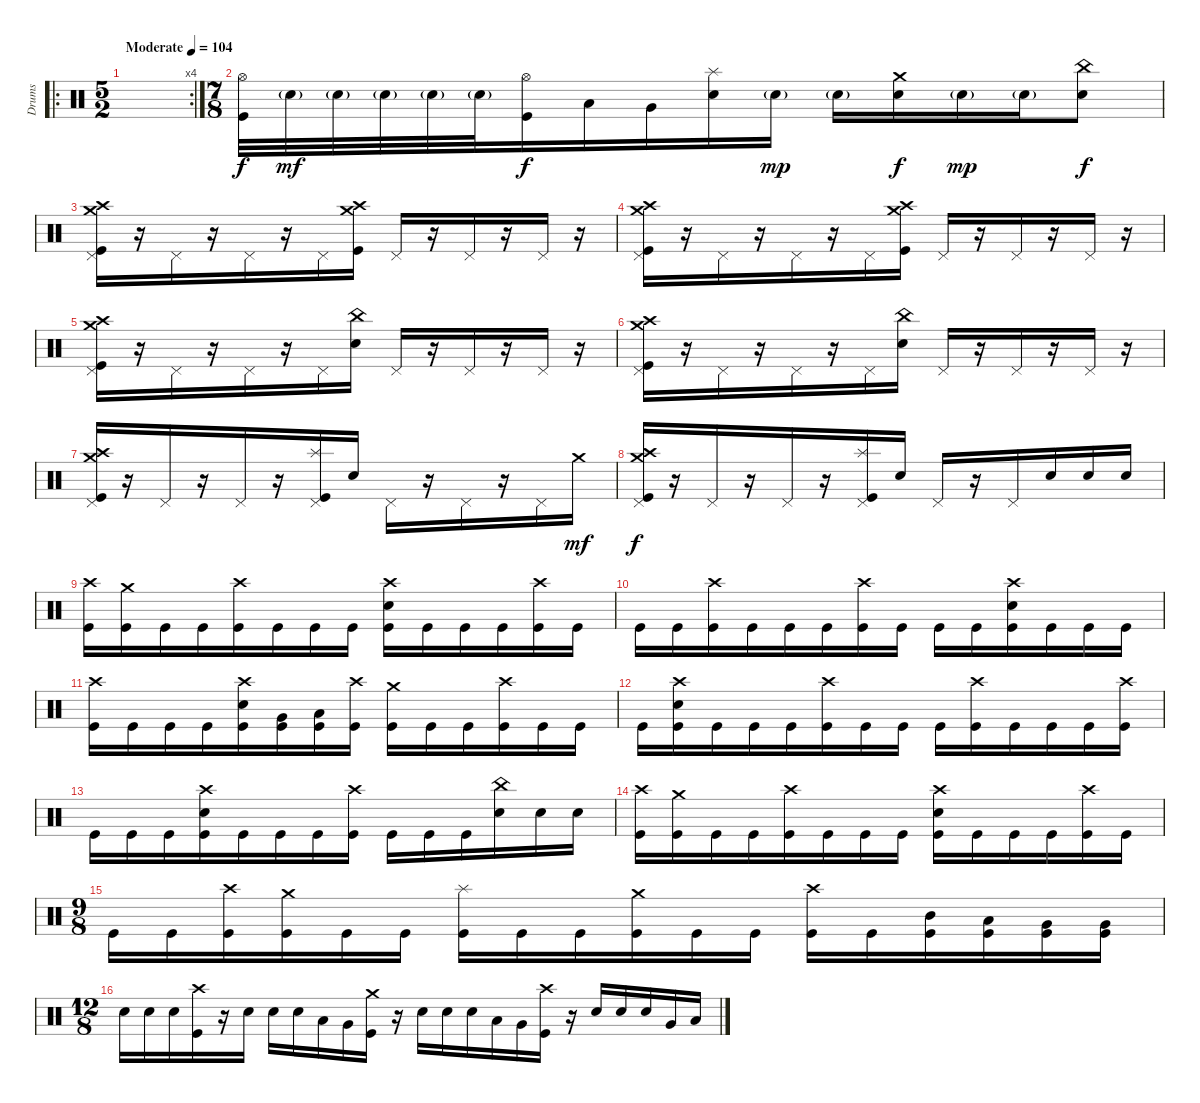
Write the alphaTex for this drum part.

\track ("Drums" "Drums") {instrument percussion}
\staff {score}
\articulation defaults
\ro
\rc 4
\ts (5 2)
\tempo (104 "Moderate")
\clef neutral
\ks c
|
\ts (7 8)
("Hi-Hat (open)" "Kick (hit)").32 "Electric Snare (hit)"{g}.32{dy mf} "Electric Snare (hit)"{g}.32 "Electric Snare (hit)"{g}.32 "Electric Snare (hit)"{g}.32 "Electric Snare (hit)"{g}.32 ("Hi-Hat (open)" "Kick (hit)").16{dy f} "Low Floor Tom (hit)".16 "Very Low Tom (hit)".16 ("Splash (hit)" "Electric Snare (hit)").16 "Electric Snare (hit)"{g}.16{dy mp} "Electric Snare (hit)"{g}.16 ("Crash medium (hit)" "Electric Snare (hit)").16{dy f} "Electric Snare (hit)"{g}.16{dy mp} "Electric Snare (hit)"{g}.16 ("China (hit)" "Electric Snare (hit)").8{dy f} |
("Crash high (hit)" "Crash medium (hit)" "Pedal Hi-Hat (hit)" "Kick (hit)").16 r.16 "Pedal Hi-Hat (hit)".16 r.16 "Pedal Hi-Hat (hit)".16 r.16 "Pedal Hi-Hat (hit)".16 ("Crash high (hit)" "Crash medium (hit)" "Kick (hit)").16 "Pedal Hi-Hat (hit)".16 r.16 "Pedal Hi-Hat (hit)".16 r.16 "Pedal Hi-Hat (hit)".16 r.16 |
("Crash high (hit)" "Crash medium (hit)" "Pedal Hi-Hat (hit)" "Kick (hit)").16 r.16 "Pedal Hi-Hat (hit)".16 r.16 "Pedal Hi-Hat (hit)".16 r.16 "Pedal Hi-Hat (hit)".16 ("Crash high (hit)" "Crash medium (hit)" "Kick (hit)").16 "Pedal Hi-Hat (hit)".16 r.16 "Pedal Hi-Hat (hit)".16 r.16 "Pedal Hi-Hat (hit)".16 r.16 |
("Crash high (hit)" "Crash medium (hit)" "Pedal Hi-Hat (hit)" "Kick (hit)").16 r.16 "Pedal Hi-Hat (hit)".16 r.16 "Pedal Hi-Hat (hit)".16 r.16 "Pedal Hi-Hat (hit)".16 ("China (hit)" "Electric Snare (hit)").16 "Pedal Hi-Hat (hit)".16 r.16 "Pedal Hi-Hat (hit)".16 r.16 "Pedal Hi-Hat (hit)".16 r.16 |
("Crash high (hit)" "Crash medium (hit)" "Pedal Hi-Hat (hit)" "Kick (hit)").16 r.16 "Pedal Hi-Hat (hit)".16 r.16 "Pedal Hi-Hat (hit)".16 r.16 "Pedal Hi-Hat (hit)".16 ("China (hit)" "Electric Snare (hit)").16 "Pedal Hi-Hat (hit)".16 r.16 "Pedal Hi-Hat (hit)".16 r.16 "Pedal Hi-Hat (hit)".16 r.16 |
("Crash high (hit)" "Crash medium (hit)" "Pedal Hi-Hat (hit)" "Kick (hit)").16 r.16 "Pedal Hi-Hat (hit)".16 r.16 "Pedal Hi-Hat (hit)".16 r.16 ("Splash (hit)" "Pedal Hi-Hat (hit)" "Kick (hit)").16 "Electric Snare (hit)".16 "Pedal Hi-Hat (hit)".16 r.16 "Pedal Hi-Hat (hit)".16 r.16 "Pedal Hi-Hat (hit)".16 "Crash medium (hit)".16{dy mf} |
("Crash high (hit)" "Crash medium (hit)" "Pedal Hi-Hat (hit)" "Kick (hit)").16{dy f} r.16 "Pedal Hi-Hat (hit)".16 r.16 "Pedal Hi-Hat (hit)".16 r.16 ("Splash (hit)" "Pedal Hi-Hat (hit)" "Kick (hit)").16 "Electric Snare (hit)".16 "Pedal Hi-Hat (hit)".16 r.16 "Pedal Hi-Hat (hit)".16 "Electric Snare (hit)".16 "Electric Snare (hit)".16 "Electric Snare (hit)".16 |
("Crash high (hit)" "Kick (hit)").16 ("Crash medium (hit)" "Kick (hit)").16 "Kick (hit)".16 "Kick (hit)".16 ("Crash high (hit)" "Kick (hit)").16 "Kick (hit)".16 "Kick (hit)".16 "Kick (hit)".16 ("Crash high (hit)" "Electric Snare (hit)" "Kick (hit)").16 "Kick (hit)".16 "Kick (hit)".16 "Kick (hit)".16 ("Crash high (hit)" "Kick (hit)").16 "Kick (hit)".16 |
"Kick (hit)".16 "Kick (hit)".16 ("Crash high (hit)" "Kick (hit)").16 "Kick (hit)".16 "Kick (hit)".16 "Kick (hit)".16 ("Crash high (hit)" "Kick (hit)").16 "Kick (hit)".16 "Kick (hit)".16 "Kick (hit)".16 ("Crash high (hit)" "Electric Snare (hit)" "Kick (hit)").16 "Kick (hit)".16 "Kick (hit)".16 "Kick (hit)".16 |
("Crash high (hit)" "Kick (hit)").16 "Kick (hit)".16 "Kick (hit)".16 "Kick (hit)".16 ("Crash high (hit)" "Electric Snare (hit)" "Kick (hit)").16 ("Very Low Tom (hit)" "Kick (hit)").16 ("Low Floor Tom (hit)" "Kick (hit)").16 ("Crash high (hit)" "Kick (hit)").16 ("Crash medium (hit)" "Kick (hit)").16 "Kick (hit)".16 "Kick (hit)".16 ("Crash high (hit)" "Kick (hit)").16 "Kick (hit)".16 "Kick (hit)".16 |
"Kick (hit)".16 ("Crash high (hit)" "Electric Snare (hit)" "Kick (hit)").16 "Kick (hit)".16 "Kick (hit)".16 "Kick (hit)".16 ("Crash high (hit)" "Kick (hit)").16 "Kick (hit)".16 "Kick (hit)".16 "Kick (hit)".16 ("Crash high (hit)" "Kick (hit)").16 "Kick (hit)".16 "Kick (hit)".16 "Kick (hit)".16 ("Crash high (hit)" "Kick (hit)").16 |
"Kick (hit)".16 "Kick (hit)".16 "Kick (hit)".16 ("Crash high (hit)" "Electric Snare (hit)" "Kick (hit)").16 "Kick (hit)".16 "Kick (hit)".16 "Kick (hit)".16 ("Crash high (hit)" "Kick (hit)").16 "Kick (hit)".16 "Kick (hit)".16 "Kick (hit)".16 ("China (hit)" "Electric Snare (hit)").16 "Electric Snare (hit)".16 "Electric Snare (hit)".16 |
("Crash high (hit)" "Kick (hit)").16 ("Crash medium (hit)" "Kick (hit)").16 "Kick (hit)".16 "Kick (hit)".16 ("Crash high (hit)" "Kick (hit)").16 "Kick (hit)".16 "Kick (hit)".16 "Kick (hit)".16 ("Crash high (hit)" "Electric Snare (hit)" "Kick (hit)").16 "Kick (hit)".16 "Kick (hit)".16 "Kick (hit)".16 ("Crash high (hit)" "Kick (hit)").16 "Kick (hit)".16 |
\ts (9 8)
"Kick (hit)".16 "Kick (hit)".16 ("Crash high (hit)" "Kick (hit)").16 ("Crash medium (hit)" "Kick (hit)").16 "Kick (hit)".16 "Kick (hit)".16 ("Splash (hit)" "Kick (hit)").16 "Kick (hit)".16 "Kick (hit)".16 ("Crash medium (hit)" "Kick (hit)").16 "Kick (hit)".16 "Kick (hit)".16 ("Crash high (hit)" "Kick (hit)").16 "Kick (hit)".16 ("Mid Tom (hit)" "Kick (hit)").16 ("Low Tom (hit)" "Kick (hit)").16 ("Very Low Tom (hit)" "Kick (hit)").16 ("Very Low Tom (hit)" "Kick (hit)").16 |
\ts (12 8)
"Electric Snare (hit)".16 "Electric Snare (hit)".16 "Electric Snare (hit)".16 ("Crash high (hit)" "Kick (hit)").16 r.16 "Electric Snare (hit)".16 "Electric Snare (hit)".16 "Electric Snare (hit)".16 "Low Tom (hit)".16 "Very Low Tom (hit)".16 ("Crash medium (hit)" "Kick (hit)").16 r.16 "Electric Snare (hit)".16 "Electric Snare (hit)".16 "Electric Snare (hit)".16 "Low Tom (hit)".16 "Very Low Tom (hit)".16 ("Crash high (hit)" "Kick (hit)").16 r.16 "Electric Snare (hit)".16 "Electric Snare (hit)".16 "Electric Snare (hit)".16 "Very Low Tom (hit)".16 "Low Floor Tom (hit)".16
